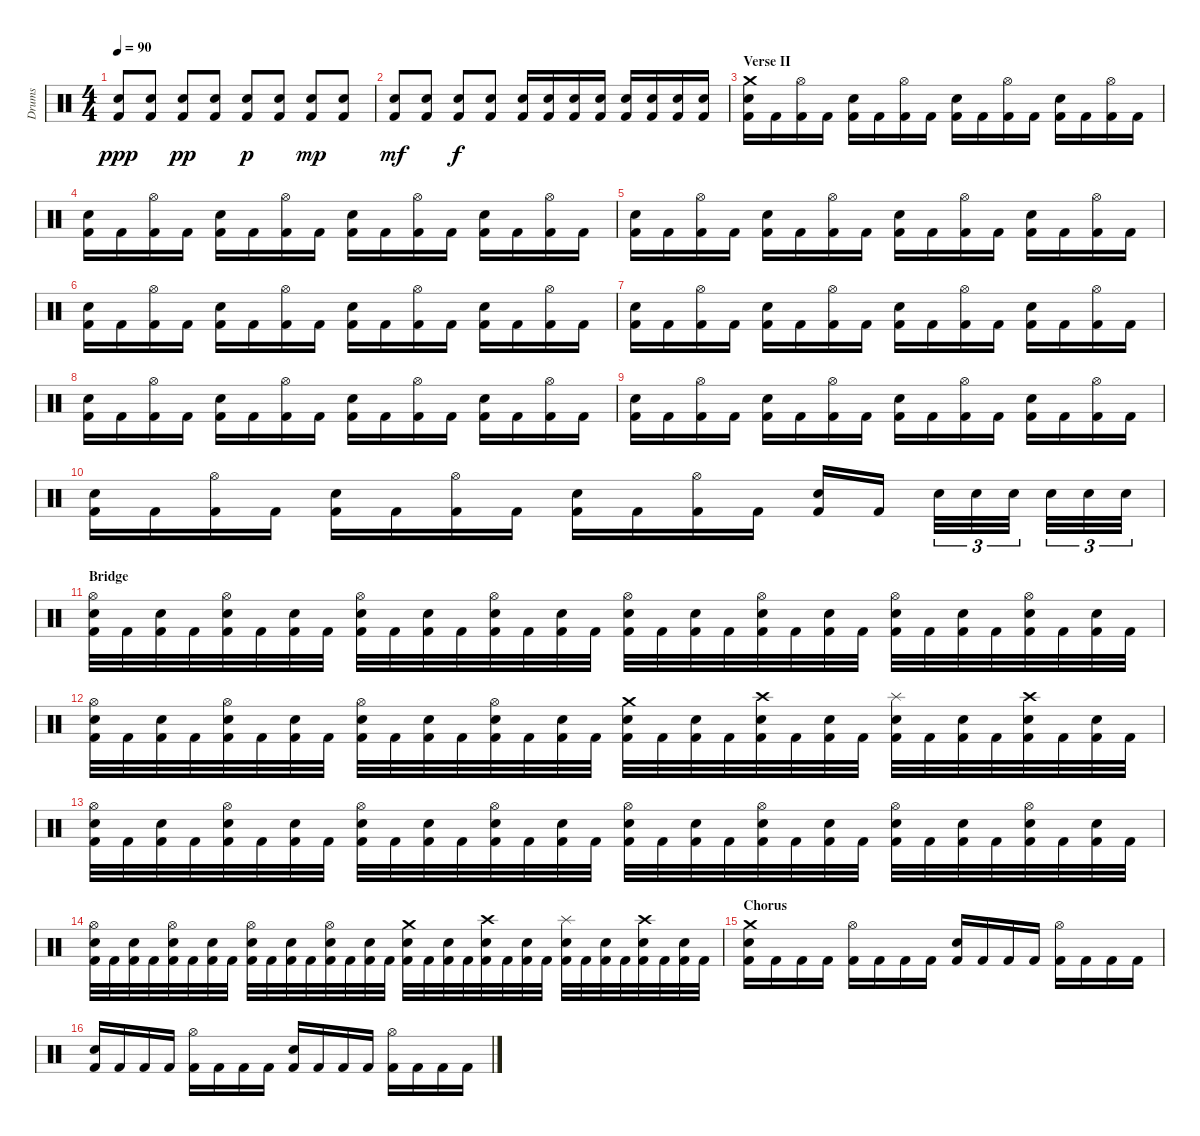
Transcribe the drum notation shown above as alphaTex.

\track ("Drums" "Drums") {instrument percussion}
\staff {score}
\articulation defaults
\ts (4 4)
\tempo 90
\clef neutral
\ks c
("Kick (hit) 2" "Snare (hit) 2").8{dy ppp} ("Kick (hit) 2" "Snare (hit) 2").8 ("Kick (hit) 2" "Snare (hit) 2").8{dy pp} ("Kick (hit) 2" "Snare (hit) 2").8 ("Kick (hit) 2" "Snare (hit) 2").8{dy p} ("Kick (hit) 2" "Snare (hit) 2").8 ("Kick (hit) 2" "Snare (hit) 2").8{dy mp} ("Kick (hit) 2" "Snare (hit) 2").8 |
("Kick (hit) 2" "Snare (hit) 2").8{dy mf} ("Kick (hit) 2" "Snare (hit) 2").8 ("Kick (hit) 2" "Snare (hit) 2").8{dy f} ("Kick (hit) 2" "Snare (hit) 2").8 ("Kick (hit) 2" "Snare (hit) 2").16 ("Kick (hit) 2" "Snare (hit) 2").16 ("Kick (hit) 2" "Snare (hit) 2").16 ("Kick (hit) 2" "Snare (hit) 2").16 ("Kick (hit) 2" "Snare (hit) 2").16 ("Kick (hit) 2" "Snare (hit) 2").16 ("Kick (hit) 2" "Snare (hit) 2").16 ("Kick (hit) 2" "Snare (hit) 2").16 |
\section ("" "Verse II")
("Kick (hit) 2" "Snare (hit) 2" "Crash medium (hit)").16 "Kick (hit) 2".16 ("Kick (hit) 2" "Hi-Hat (open)").16 "Kick (hit) 2".16 ("Kick (hit) 2" "Snare (hit) 2").16 "Kick (hit) 2".16 ("Kick (hit) 2" "Hi-Hat (open)").16 "Kick (hit) 2".16 ("Kick (hit) 2" "Snare (hit) 2").16 "Kick (hit) 2".16 ("Kick (hit) 2" "Hi-Hat (open)").16 "Kick (hit) 2".16 ("Kick (hit) 2" "Snare (hit) 2").16 "Kick (hit) 2".16 ("Kick (hit) 2" "Hi-Hat (open)").16 "Kick (hit) 2".16 |
("Kick (hit) 2" "Snare (hit) 2").16 "Kick (hit) 2".16 ("Kick (hit) 2" "Hi-Hat (open)").16 "Kick (hit) 2".16 ("Kick (hit) 2" "Snare (hit) 2").16 "Kick (hit) 2".16 ("Kick (hit) 2" "Hi-Hat (open)").16 "Kick (hit) 2".16 ("Kick (hit) 2" "Snare (hit) 2").16 "Kick (hit) 2".16 ("Kick (hit) 2" "Hi-Hat (open)").16 "Kick (hit) 2".16 ("Kick (hit) 2" "Snare (hit) 2").16 "Kick (hit) 2".16 ("Kick (hit) 2" "Hi-Hat (open)").16 "Kick (hit) 2".16 |
("Kick (hit) 2" "Snare (hit) 2").16 "Kick (hit) 2".16 ("Kick (hit) 2" "Hi-Hat (open)").16 "Kick (hit) 2".16 ("Kick (hit) 2" "Snare (hit) 2").16 "Kick (hit) 2".16 ("Kick (hit) 2" "Hi-Hat (open)").16 "Kick (hit) 2".16 ("Kick (hit) 2" "Snare (hit) 2").16 "Kick (hit) 2".16 ("Kick (hit) 2" "Hi-Hat (open)").16 "Kick (hit) 2".16 ("Kick (hit) 2" "Snare (hit) 2").16 "Kick (hit) 2".16 ("Kick (hit) 2" "Hi-Hat (open)").16 "Kick (hit) 2".16 |
("Kick (hit) 2" "Snare (hit) 2").16 "Kick (hit) 2".16 ("Kick (hit) 2" "Hi-Hat (open)").16 "Kick (hit) 2".16 ("Kick (hit) 2" "Snare (hit) 2").16 "Kick (hit) 2".16 ("Kick (hit) 2" "Hi-Hat (open)").16 "Kick (hit) 2".16 ("Kick (hit) 2" "Snare (hit) 2").16 "Kick (hit) 2".16 ("Kick (hit) 2" "Hi-Hat (open)").16 "Kick (hit) 2".16 ("Kick (hit) 2" "Snare (hit) 2").16 "Kick (hit) 2".16 ("Kick (hit) 2" "Hi-Hat (open)").16 "Kick (hit) 2".16 |
("Kick (hit) 2" "Snare (hit) 2").16 "Kick (hit) 2".16 ("Kick (hit) 2" "Hi-Hat (open)").16 "Kick (hit) 2".16 ("Kick (hit) 2" "Snare (hit) 2").16 "Kick (hit) 2".16 ("Kick (hit) 2" "Hi-Hat (open)").16 "Kick (hit) 2".16 ("Kick (hit) 2" "Snare (hit) 2").16 "Kick (hit) 2".16 ("Kick (hit) 2" "Hi-Hat (open)").16 "Kick (hit) 2".16 ("Kick (hit) 2" "Snare (hit) 2").16 "Kick (hit) 2".16 ("Kick (hit) 2" "Hi-Hat (open)").16 "Kick (hit) 2".16 |
("Kick (hit) 2" "Snare (hit) 2").16 "Kick (hit) 2".16 ("Kick (hit) 2" "Hi-Hat (open)").16 "Kick (hit) 2".16 ("Kick (hit) 2" "Snare (hit) 2").16 "Kick (hit) 2".16 ("Kick (hit) 2" "Hi-Hat (open)").16 "Kick (hit) 2".16 ("Kick (hit) 2" "Snare (hit) 2").16 "Kick (hit) 2".16 ("Kick (hit) 2" "Hi-Hat (open)").16 "Kick (hit) 2".16 ("Kick (hit) 2" "Snare (hit) 2").16 "Kick (hit) 2".16 ("Kick (hit) 2" "Hi-Hat (open)").16 "Kick (hit) 2".16 |
("Kick (hit) 2" "Snare (hit) 2").16 "Kick (hit) 2".16 ("Kick (hit) 2" "Hi-Hat (open)").16 "Kick (hit) 2".16 ("Kick (hit) 2" "Snare (hit) 2").16 "Kick (hit) 2".16 ("Kick (hit) 2" "Hi-Hat (open)").16 "Kick (hit) 2".16 ("Kick (hit) 2" "Snare (hit) 2").16 "Kick (hit) 2".16 ("Kick (hit) 2" "Hi-Hat (open)").16 "Kick (hit) 2".16 ("Kick (hit) 2" "Snare (hit) 2").16 "Kick (hit) 2".16 ("Kick (hit) 2" "Hi-Hat (open)").16 "Kick (hit) 2".16 |
("Kick (hit) 2" "Snare (hit) 2").16 "Kick (hit) 2".16 ("Kick (hit) 2" "Hi-Hat (open)").16 "Kick (hit) 2".16 ("Kick (hit) 2" "Snare (hit) 2").16 "Kick (hit) 2".16 ("Kick (hit) 2" "Hi-Hat (open)").16 "Kick (hit) 2".16 ("Kick (hit) 2" "Snare (hit) 2").16 "Kick (hit) 2".16 ("Kick (hit) 2" "Hi-Hat (open)").16 "Kick (hit) 2".16 ("Kick (hit) 2" "Snare (hit) 2").16 "Kick (hit) 2".16 "Snare (hit) 2".32{tu (3 2)} "Snare (hit) 2".32{tu (3 2)} "Snare (hit) 2".32{tu (3 2)} "Snare (hit) 2".32{tu (3 2)} "Snare (hit) 2".32{tu (3 2)} "Snare (hit) 2".32{tu (3 2)} |
\section ("" "Bridge")
("Kick (hit) 2" "Hi-Hat (open)" "Snare (hit) 2").32 "Kick (hit) 2".32 ("Kick (hit) 2" "Snare (hit) 2").32 "Kick (hit) 2".32 ("Kick (hit) 2" "Hi-Hat (open)" "Snare (hit) 2").32 "Kick (hit) 2".32 ("Kick (hit) 2" "Snare (hit) 2").32 "Kick (hit) 2".32 ("Kick (hit) 2" "Hi-Hat (open)" "Snare (hit) 2").32 "Kick (hit) 2".32 ("Kick (hit) 2" "Snare (hit) 2").32 "Kick (hit) 2".32 ("Kick (hit) 2" "Hi-Hat (open)" "Snare (hit) 2").32 "Kick (hit) 2".32 ("Kick (hit) 2" "Snare (hit) 2").32 "Kick (hit) 2".32 ("Kick (hit) 2" "Hi-Hat (open)" "Snare (hit) 2").32 "Kick (hit) 2".32 ("Kick (hit) 2" "Snare (hit) 2").32 "Kick (hit) 2".32 ("Kick (hit) 2" "Hi-Hat (open)" "Snare (hit) 2").32 "Kick (hit) 2".32 ("Kick (hit) 2" "Snare (hit) 2").32 "Kick (hit) 2".32 ("Kick (hit) 2" "Hi-Hat (open)" "Snare (hit) 2").32 "Kick (hit) 2".32 ("Kick (hit) 2" "Snare (hit) 2").32 "Kick (hit) 2".32 ("Kick (hit) 2" "Hi-Hat (open)" "Snare (hit) 2").32 "Kick (hit) 2".32 ("Kick (hit) 2" "Snare (hit) 2").32 "Kick (hit) 2".32 |
("Kick (hit) 2" "Hi-Hat (open)" "Snare (hit) 2").32 "Kick (hit) 2".32 ("Kick (hit) 2" "Snare (hit) 2").32 "Kick (hit) 2".32 ("Kick (hit) 2" "Hi-Hat (open)" "Snare (hit) 2").32 "Kick (hit) 2".32 ("Kick (hit) 2" "Snare (hit) 2").32 "Kick (hit) 2".32 ("Kick (hit) 2" "Hi-Hat (open)" "Snare (hit) 2").32 "Kick (hit) 2".32 ("Kick (hit) 2" "Snare (hit) 2").32 "Kick (hit) 2".32 ("Kick (hit) 2" "Hi-Hat (open)" "Snare (hit) 2").32 "Kick (hit) 2".32 ("Kick (hit) 2" "Snare (hit) 2").32 "Kick (hit) 2".32 ("Kick (hit) 2" "Snare (hit) 2" "Crash medium (hit)").32 "Kick (hit) 2".32 ("Kick (hit) 2" "Snare (hit) 2").32 "Kick (hit) 2".32 ("Kick (hit) 2" "Snare (hit) 2" "Crash high (hit)").32 "Kick (hit) 2".32 ("Kick (hit) 2" "Snare (hit) 2").32 "Kick (hit) 2".32 ("Kick (hit) 2" "Snare (hit) 2" "Splash (hit)").32 "Kick (hit) 2".32 ("Kick (hit) 2" "Snare (hit) 2").32 "Kick (hit) 2".32 ("Kick (hit) 2" "Snare (hit) 2" "Crash high (hit)").32 "Kick (hit) 2".32 ("Kick (hit) 2" "Snare (hit) 2").32 "Kick (hit) 2".32 |
("Kick (hit) 2" "Hi-Hat (open)" "Snare (hit) 2").32 "Kick (hit) 2".32 ("Kick (hit) 2" "Snare (hit) 2").32 "Kick (hit) 2".32 ("Kick (hit) 2" "Hi-Hat (open)" "Snare (hit) 2").32 "Kick (hit) 2".32 ("Kick (hit) 2" "Snare (hit) 2").32 "Kick (hit) 2".32 ("Kick (hit) 2" "Hi-Hat (open)" "Snare (hit) 2").32 "Kick (hit) 2".32 ("Kick (hit) 2" "Snare (hit) 2").32 "Kick (hit) 2".32 ("Kick (hit) 2" "Hi-Hat (open)" "Snare (hit) 2").32 "Kick (hit) 2".32 ("Kick (hit) 2" "Snare (hit) 2").32 "Kick (hit) 2".32 ("Kick (hit) 2" "Hi-Hat (open)" "Snare (hit) 2").32 "Kick (hit) 2".32 ("Kick (hit) 2" "Snare (hit) 2").32 "Kick (hit) 2".32 ("Kick (hit) 2" "Hi-Hat (open)" "Snare (hit) 2").32 "Kick (hit) 2".32 ("Kick (hit) 2" "Snare (hit) 2").32 "Kick (hit) 2".32 ("Kick (hit) 2" "Hi-Hat (open)" "Snare (hit) 2").32 "Kick (hit) 2".32 ("Kick (hit) 2" "Snare (hit) 2").32 "Kick (hit) 2".32 ("Kick (hit) 2" "Hi-Hat (open)" "Snare (hit) 2").32 "Kick (hit) 2".32 ("Kick (hit) 2" "Snare (hit) 2").32 "Kick (hit) 2".32 |
("Kick (hit) 2" "Hi-Hat (open)" "Snare (hit) 2").32 "Kick (hit) 2".32 ("Kick (hit) 2" "Snare (hit) 2").32 "Kick (hit) 2".32 ("Kick (hit) 2" "Hi-Hat (open)" "Snare (hit) 2").32 "Kick (hit) 2".32 ("Kick (hit) 2" "Snare (hit) 2").32 "Kick (hit) 2".32 ("Kick (hit) 2" "Hi-Hat (open)" "Snare (hit) 2").32 "Kick (hit) 2".32 ("Kick (hit) 2" "Snare (hit) 2").32 "Kick (hit) 2".32 ("Kick (hit) 2" "Hi-Hat (open)" "Snare (hit) 2").32 "Kick (hit) 2".32 ("Kick (hit) 2" "Snare (hit) 2").32 "Kick (hit) 2".32 ("Kick (hit) 2" "Snare (hit) 2" "Crash medium (hit)").32 "Kick (hit) 2".32 ("Kick (hit) 2" "Snare (hit) 2").32 "Kick (hit) 2".32 ("Kick (hit) 2" "Snare (hit) 2" "Crash high (hit)").32 "Kick (hit) 2".32 ("Kick (hit) 2" "Snare (hit) 2").32 "Kick (hit) 2".32 ("Kick (hit) 2" "Snare (hit) 2" "Splash (hit)").32 "Kick (hit) 2".32 ("Kick (hit) 2" "Snare (hit) 2").32 "Kick (hit) 2".32 ("Kick (hit) 2" "Snare (hit) 2" "Crash high (hit)").32 "Kick (hit) 2".32 ("Kick (hit) 2" "Snare (hit) 2").32 "Kick (hit) 2".32 |
\section ("" "Chorus")
("Kick (hit) 2" "Snare (hit) 2" "Crash medium (hit)").16 "Kick (hit) 2".16 "Kick (hit) 2".16 "Kick (hit) 2".16 ("Kick (hit) 2" "Hi-Hat (open)").16 "Kick (hit) 2".16 "Kick (hit) 2".16 "Kick (hit) 2".16 ("Kick (hit) 2" "Snare (hit) 2").16 "Kick (hit) 2".16 "Kick (hit) 2".16 "Kick (hit) 2".16 ("Kick (hit) 2" "Hi-Hat (open)").16 "Kick (hit) 2".16 "Kick (hit) 2".16 "Kick (hit) 2".16 |
("Kick (hit) 2" "Snare (hit) 2").16 "Kick (hit) 2".16 "Kick (hit) 2".16 "Kick (hit) 2".16 ("Kick (hit) 2" "Hi-Hat (open)").16 "Kick (hit) 2".16 "Kick (hit) 2".16 "Kick (hit) 2".16 ("Kick (hit) 2" "Snare (hit) 2").16 "Kick (hit) 2".16 "Kick (hit) 2".16 "Kick (hit) 2".16 ("Kick (hit) 2" "Hi-Hat (open)").16 "Kick (hit) 2".16 "Kick (hit) 2".16 "Kick (hit) 2".16
